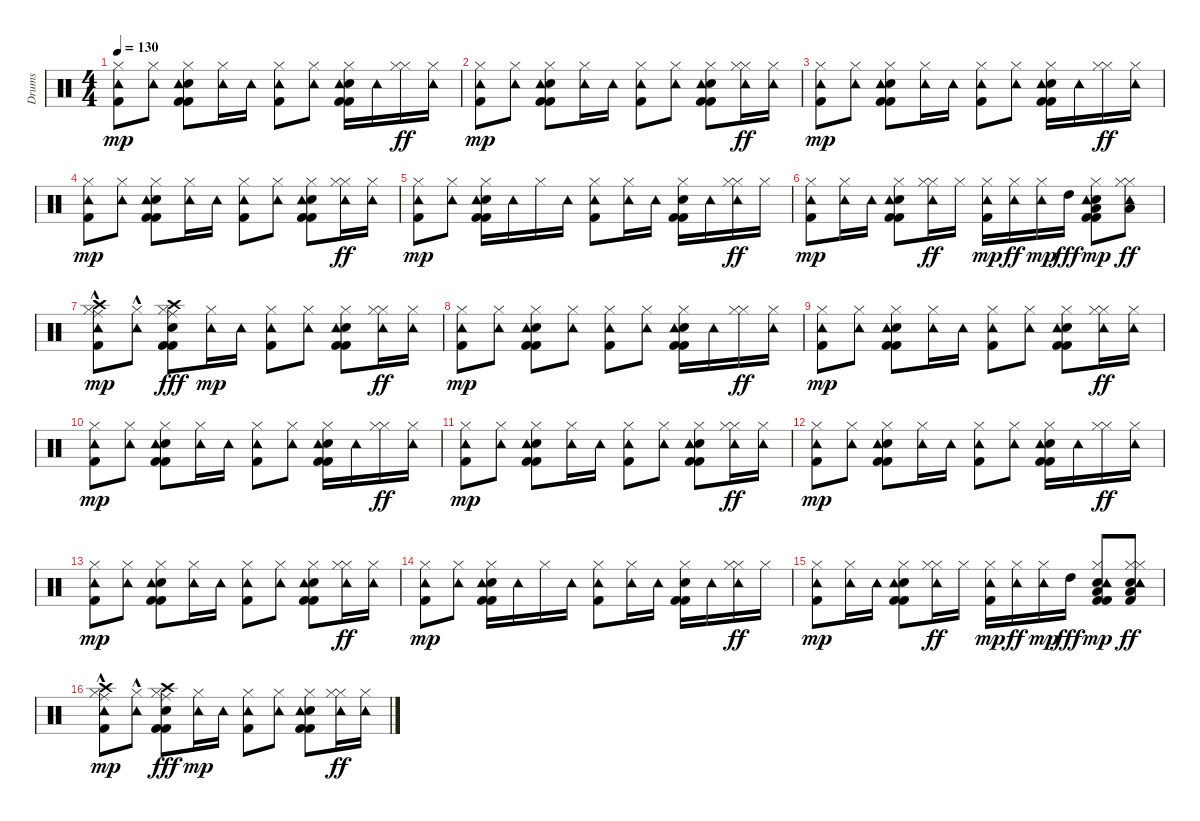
\track ("Drums" "Drums") {instrument percussion}
\staff {score}
\articulation defaults
\ts (4 4)
\tempo 130
\clef neutral
\ks c
("Kick (hit) 2" "Hi-Hat (closed)" "Tambourine (hit)").8{dy mp} ("Hi-Hat (closed)" "Tambourine (hit)").8 ("Kick (hit) 2" "Snare (hit) 2" "Kick (hit) 2" "Hi-Hat (closed)" "Tambourine (hit)").8 ("Hi-Hat (closed)" "Tambourine (hit)").16 "Tambourine (hit)".16 ("Kick (hit) 2" "Hi-Hat (closed)" "Tambourine (hit)").8 ("Hi-Hat (closed)" "Tambourine (hit)").8 ("Kick (hit) 2" "Snare (hit) 2" "Kick (hit) 2" "Hi-Hat (closed)" "Tambourine (hit)").16 "Tambourine (hit)".16 ("Hi-Hat (closed)" "Hi-Hat (closed)").16{dy ff} ("Tambourine (hit)" "Hi-Hat (closed)").16 |
("Kick (hit) 2" "Hi-Hat (closed)" "Tambourine (hit)").8{dy mp} ("Hi-Hat (closed)" "Tambourine (hit)").8 ("Kick (hit) 2" "Snare (hit) 2" "Kick (hit) 2" "Hi-Hat (closed)" "Tambourine (hit)").8 ("Hi-Hat (closed)" "Tambourine (hit)").16 "Tambourine (hit)".16 ("Kick (hit) 2" "Hi-Hat (closed)" "Tambourine (hit)").8 ("Hi-Hat (closed)" "Tambourine (hit)").8 ("Kick (hit) 2" "Snare (hit) 2" "Kick (hit) 2" "Hi-Hat (closed)" "Tambourine (hit)").8 ("Hi-Hat (closed)" "Tambourine (hit)" "Hi-Hat (closed)").16{dy ff} ("Tambourine (hit)" "Hi-Hat (closed)").16 |
("Kick (hit) 2" "Hi-Hat (closed)" "Tambourine (hit)").8{dy mp} ("Hi-Hat (closed)" "Tambourine (hit)").8 ("Kick (hit) 2" "Snare (hit) 2" "Kick (hit) 2" "Hi-Hat (closed)" "Tambourine (hit)").8 ("Hi-Hat (closed)" "Tambourine (hit)").16 "Tambourine (hit)".16 ("Kick (hit) 2" "Hi-Hat (closed)" "Tambourine (hit)").8 ("Hi-Hat (closed)" "Tambourine (hit)").8 ("Kick (hit) 2" "Snare (hit) 2" "Kick (hit) 2" "Hi-Hat (closed)" "Tambourine (hit)").16 "Tambourine (hit)".16 ("Hi-Hat (closed)" "Hi-Hat (closed)").16{dy ff} ("Tambourine (hit)" "Hi-Hat (closed)").16 |
("Kick (hit) 2" "Hi-Hat (closed)" "Tambourine (hit)").8{dy mp} ("Hi-Hat (closed)" "Tambourine (hit)").8 ("Kick (hit) 2" "Kick (hit) 2" "Snare (hit) 2" "Hi-Hat (closed)" "Tambourine (hit)").8 ("Hi-Hat (closed)" "Tambourine (hit)").16 "Tambourine (hit)".16 ("Kick (hit) 2" "Hi-Hat (closed)" "Tambourine (hit)").8 ("Hi-Hat (closed)" "Tambourine (hit)").8 ("Kick (hit) 2" "Kick (hit) 2" "Snare (hit) 2" "Hi-Hat (closed)" "Tambourine (hit)").8 ("Hi-Hat (closed)" "Tambourine (hit)" "Hi-Hat (closed)").16{dy ff} ("Tambourine (hit)" "Hi-Hat (closed)").16 |
("Kick (hit) 2" "Hi-Hat (closed)" "Tambourine (hit)").8{dy mp} ("Hi-Hat (closed)" "Tambourine (hit)").8 ("Kick (hit) 2" "Kick (hit) 2" "Snare (hit) 2" "Hi-Hat (closed)" "Tambourine (hit)").16 "Tambourine (hit)".16 "Hi-Hat (closed)".16 "Tambourine (hit)".16 ("Tambourine (hit)" "Kick (hit) 2" "Hi-Hat (closed)").8 ("Hi-Hat (closed)" "Tambourine (hit)").16 "Tambourine (hit)".16 ("Kick (hit) 2" "Snare (hit) 2" "Kick (hit) 2" "Hi-Hat (closed)").16 "Tambourine (hit)".16 ("Hi-Hat (closed)" "Tambourine (hit)" "Hi-Hat (closed)").16{dy ff} "Hi-Hat (closed)".16 |
("Kick (hit) 2" "Hi-Hat (closed)" "Tambourine (hit)").8{dy mp} ("Hi-Hat (closed)" "Tambourine (hit)").16 "Tambourine (hit)".16 ("Kick (hit) 2" "Snare (hit) 2" "Kick (hit) 2" "Hi-Hat (closed)" "Tambourine (hit)").8 ("Hi-Hat (closed)" "Tambourine (hit)" "Hi-Hat (closed)").16{dy ff} "Hi-Hat (closed)".16 ("Kick (hit) 2" "Hi-Hat (closed)" "Tambourine (hit)").16{dy mp} ("Tambourine (hit)" "Hi-Hat (closed)").16{dy ff} ("Hi-Hat (closed)" "Tambourine (hit)").16{dy mp} "High Tom (hit)".16{dy fff} ("Kick (hit) 2" "Snare (hit) 2" "Kick (hit) 2" "Hi-Hat (closed)" "Low Tom (hit)" "Tambourine (hit)").8{dy mp} ("Hi-Hat (closed)" "Low Floor Tom (hit)" "Tambourine (hit)" "Hi-Hat (closed)").8{dy ff} |
("Kick (hit) 2" "Hi-Hat (closed)" "Ride (middle)"{hac} "Crash high (hit)"{hac} "Tambourine (hit)").8{dy mp} ("Hi-Hat (closed)" "Tambourine (hit)"{hac}).8 ("Kick (hit) 2" "Snare (hit) 2" "Kick (hit) 2" "Hi-Hat (closed)" "Ride (middle)" "Crash high (hit)").8{dy fff} ("Hi-Hat (closed)" "Tambourine (hit)").16{dy mp} "Tambourine (hit)".16 ("Kick (hit) 2" "Hi-Hat (closed)" "Tambourine (hit)").8 ("Hi-Hat (closed)" "Tambourine (hit)").8 ("Kick (hit) 2" "Snare (hit) 2" "Kick (hit) 2" "Hi-Hat (closed)" "Tambourine (hit)").8 ("Hi-Hat (closed)" "Tambourine (hit)" "Hi-Hat (closed)").16{dy ff} ("Tambourine (hit)" "Hi-Hat (closed)").16 |
("Kick (hit) 2" "Hi-Hat (closed)" "Tambourine (hit)").8{dy mp} ("Hi-Hat (closed)" "Tambourine (hit)").8 ("Kick (hit) 2" "Snare (hit) 2" "Kick (hit) 2" "Hi-Hat (closed)" "Tambourine (hit)").8 ("Hi-Hat (closed)" "Tambourine (hit)").8 ("Kick (hit) 2" "Hi-Hat (closed)" "Tambourine (hit)").8 ("Hi-Hat (closed)" "Tambourine (hit)").8 ("Kick (hit) 2" "Snare (hit) 2" "Kick (hit) 2" "Hi-Hat (closed)" "Tambourine (hit)").16 "Tambourine (hit)".16 ("Hi-Hat (closed)" "Hi-Hat (closed)").16{dy ff} ("Tambourine (hit)" "Hi-Hat (closed)").16 |
("Kick (hit) 2" "Hi-Hat (closed)" "Tambourine (hit)").8{dy mp} ("Hi-Hat (closed)" "Tambourine (hit)").8 ("Kick (hit) 2" "Snare (hit) 2" "Kick (hit) 2" "Hi-Hat (closed)" "Tambourine (hit)").8 ("Hi-Hat (closed)" "Tambourine (hit)").16 "Tambourine (hit)".16 ("Kick (hit) 2" "Hi-Hat (closed)" "Tambourine (hit)").8 ("Hi-Hat (closed)" "Tambourine (hit)").8 ("Kick (hit) 2" "Snare (hit) 2" "Kick (hit) 2" "Hi-Hat (closed)" "Tambourine (hit)").8 ("Hi-Hat (closed)" "Tambourine (hit)" "Hi-Hat (closed)").16{dy ff} ("Tambourine (hit)" "Hi-Hat (closed)").16 |
("Kick (hit) 2" "Hi-Hat (closed)" "Tambourine (hit)").8{dy mp} ("Hi-Hat (closed)" "Tambourine (hit)").8 ("Kick (hit) 2" "Snare (hit) 2" "Kick (hit) 2" "Hi-Hat (closed)" "Tambourine (hit)").8 ("Hi-Hat (closed)" "Tambourine (hit)").16 "Tambourine (hit)".16 ("Kick (hit) 2" "Hi-Hat (closed)" "Tambourine (hit)").8 ("Hi-Hat (closed)" "Tambourine (hit)").8 ("Kick (hit) 2" "Snare (hit) 2" "Kick (hit) 2" "Hi-Hat (closed)" "Tambourine (hit)").16 "Tambourine (hit)".16 ("Hi-Hat (closed)" "Hi-Hat (closed)").16{dy ff} ("Tambourine (hit)" "Hi-Hat (closed)").16 |
("Kick (hit) 2" "Hi-Hat (closed)" "Tambourine (hit)").8{dy mp} ("Hi-Hat (closed)" "Tambourine (hit)").8 ("Kick (hit) 2" "Snare (hit) 2" "Kick (hit) 2" "Hi-Hat (closed)" "Tambourine (hit)").8 ("Hi-Hat (closed)" "Tambourine (hit)").16 "Tambourine (hit)".16 ("Kick (hit) 2" "Hi-Hat (closed)" "Tambourine (hit)").8 ("Hi-Hat (closed)" "Tambourine (hit)").8 ("Kick (hit) 2" "Snare (hit) 2" "Kick (hit) 2" "Hi-Hat (closed)" "Tambourine (hit)").8 ("Hi-Hat (closed)" "Tambourine (hit)" "Hi-Hat (closed)").16{dy ff} ("Tambourine (hit)" "Hi-Hat (closed)").16 |
("Kick (hit) 2" "Hi-Hat (closed)" "Tambourine (hit)").8{dy mp} ("Hi-Hat (closed)" "Tambourine (hit)").8 ("Kick (hit) 2" "Snare (hit) 2" "Kick (hit) 2" "Hi-Hat (closed)" "Tambourine (hit)").8 ("Hi-Hat (closed)" "Tambourine (hit)").16 "Tambourine (hit)".16 ("Kick (hit) 2" "Hi-Hat (closed)" "Tambourine (hit)").8 ("Hi-Hat (closed)" "Tambourine (hit)").8 ("Kick (hit) 2" "Snare (hit) 2" "Kick (hit) 2" "Hi-Hat (closed)" "Tambourine (hit)").16 "Tambourine (hit)".16 ("Hi-Hat (closed)" "Hi-Hat (closed)").16{dy ff} ("Tambourine (hit)" "Hi-Hat (closed)").16 |
("Kick (hit) 2" "Hi-Hat (closed)" "Tambourine (hit)").8{dy mp} ("Hi-Hat (closed)" "Tambourine (hit)").8 ("Kick (hit) 2" "Snare (hit) 2" "Kick (hit) 2" "Hi-Hat (closed)" "Tambourine (hit)").8 ("Hi-Hat (closed)" "Tambourine (hit)").16 "Tambourine (hit)".16 ("Kick (hit) 2" "Hi-Hat (closed)" "Tambourine (hit)").8 ("Hi-Hat (closed)" "Tambourine (hit)").8 ("Kick (hit) 2" "Snare (hit) 2" "Kick (hit) 2" "Hi-Hat (closed)" "Tambourine (hit)").8 ("Hi-Hat (closed)" "Tambourine (hit)" "Hi-Hat (closed)").16{dy ff} ("Tambourine (hit)" "Hi-Hat (closed)").16 |
("Kick (hit) 2" "Hi-Hat (closed)" "Tambourine (hit)").8{dy mp} ("Hi-Hat (closed)" "Tambourine (hit)").8 ("Kick (hit) 2" "Snare (hit) 2" "Kick (hit) 2" "Hi-Hat (closed)" "Tambourine (hit)").16 "Tambourine (hit)".16 "Hi-Hat (closed)".16 "Tambourine (hit)".16 ("Kick (hit) 2" "Hi-Hat (closed)" "Tambourine (hit)").8 ("Hi-Hat (closed)" "Tambourine (hit)").16 "Tambourine (hit)".16 ("Kick (hit) 2" "Snare (hit) 2" "Kick (hit) 2" "Hi-Hat (closed)").16 "Tambourine (hit)".16 ("Hi-Hat (closed)" "Tambourine (hit)" "Hi-Hat (closed)").16{dy ff} "Hi-Hat (closed)".16 |
("Kick (hit) 2" "Hi-Hat (closed)" "Tambourine (hit)").8{dy mp} ("Hi-Hat (closed)" "Tambourine (hit)").16 "Tambourine (hit)".16 ("Kick (hit) 2" "Snare (hit) 2" "Kick (hit) 2" "Hi-Hat (closed)" "Tambourine (hit)").8 ("Hi-Hat (closed)" "Tambourine (hit)" "Hi-Hat (closed)").16{dy ff} "Hi-Hat (closed)".16 ("Kick (hit) 2" "Hi-Hat (closed)" "Tambourine (hit)").16{dy mp} ("Tambourine (hit)" "Hi-Hat (closed)").16{dy ff} ("Hi-Hat (closed)" "Tambourine (hit)").16{dy mp} "High Tom (hit)".16{dy fff} ("Kick (hit) 2" "Snare (hit) 2" "Kick (hit) 2" "Hi-Hat (closed)" "Low Tom (hit)" "Tambourine (hit)").8{dy mp} ("Snare (hit) 2" "Kick (hit) 2" "Hi-Hat (closed)" "Low Floor Tom (hit)" "Tambourine (hit)" "Hi-Hat (closed)").8{dy ff} |
("Kick (hit) 2" "Hi-Hat (closed)" "Ride (middle)"{hac} "Crash high (hit)"{hac} "Tambourine (hit)").8{dy mp} ("Hi-Hat (closed)" "Tambourine (hit)"{hac}).8 ("Kick (hit) 2" "Kick (hit) 2" "Snare (hit) 2" "Hi-Hat (closed)" "Ride (middle)" "Crash high (hit)").8{dy fff} ("Hi-Hat (closed)" "Tambourine (hit)").16{dy mp} "Tambourine (hit)".16 ("Kick (hit) 2" "Hi-Hat (closed)" "Tambourine (hit)").8 ("Hi-Hat (closed)" "Tambourine (hit)").8 ("Kick (hit) 2" "Snare (hit) 2" "Kick (hit) 2" "Hi-Hat (closed)" "Tambourine (hit)").8 ("Hi-Hat (closed)" "Tambourine (hit)" "Hi-Hat (closed)").16{dy ff} ("Tambourine (hit)" "Hi-Hat (closed)").16
